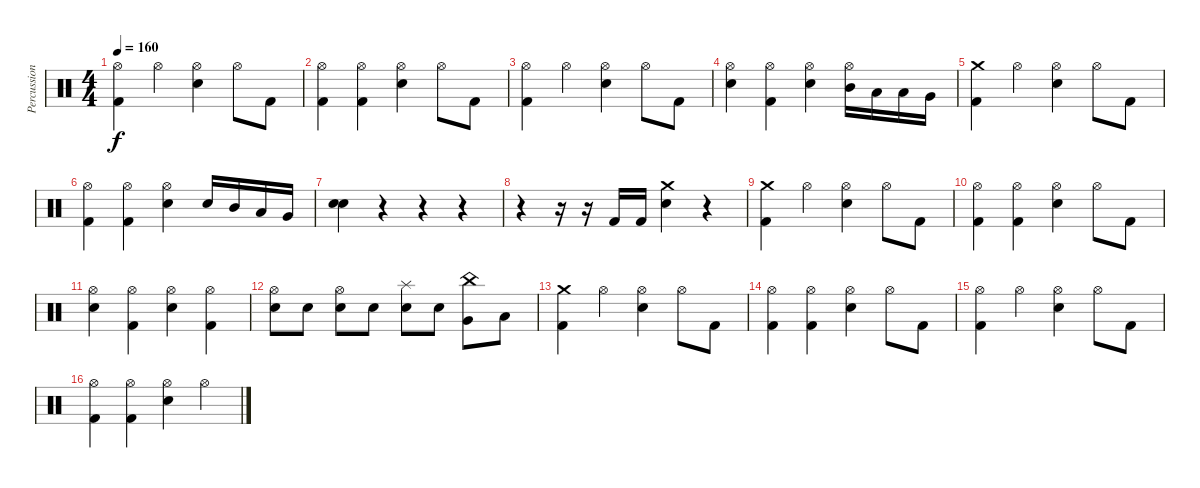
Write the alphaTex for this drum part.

\track ("Percussioni" "Percussion") {instrument percussion}
\staff {score}
\articulation defaults
\ts (4 4)
\tempo 160
\clef neutral
\ks c
("Hi-Hat (open)" "Kick (hit) 2").4{dy f} "Hi-Hat (open)".4 ("Hi-Hat (open)" "Snare (hit) 2").4 "Hi-Hat (open)".8 "Kick (hit) 2".8 |
("Hi-Hat (open)" "Kick (hit) 2").4 ("Hi-Hat (open)" "Kick (hit) 2").4 ("Hi-Hat (open)" "Snare (hit) 2").4 "Hi-Hat (open)".8 "Kick (hit) 2".8 |
("Hi-Hat (open)" "Kick (hit) 2").4 "Hi-Hat (open)".4 ("Hi-Hat (open)" "Snare (hit) 2").4 "Hi-Hat (open)".8 "Kick (hit) 2".8 |
("Hi-Hat (open)" "Snare (hit) 2").4 ("Hi-Hat (open)" "Kick (hit) 2").4 ("Hi-Hat (open)" "Snare (hit) 2").4 ("Hi-Hat (open)" "Mid Tom (hit)").16 "Low Tom (hit)".16 "Low Tom (hit)".16 "Very Low Tom (hit)".16 |
("Crash medium (hit)" "Kick (hit) 2").4 "Hi-Hat (open)".4 ("Hi-Hat (open)" "Snare (hit) 2").4 "Hi-Hat (open)".8 "Kick (hit) 2".8 |
("Hi-Hat (open)" "Kick (hit) 2").4 ("Hi-Hat (open)" "Kick (hit) 2").4 ("Hi-Hat (open)" "Snare (hit) 2").4 "Snare (hit) 2".16 "Mid Tom (hit)".16 "Low Tom (hit)".16 "Very Low Tom (hit)".16 |
("Electric Snare (hit)" "Snare (hit) 2").4 r.4 r.4 r.4 |
r.4 r.16 r.16 "Kick (hit) 2".16 "Kick (hit) 2".16 ("Crash medium (hit)" "Snare (hit) 2").4 r.4 |
("Crash medium (hit)" "Kick (hit) 2").4 "Hi-Hat (open)".4 ("Hi-Hat (open)" "Snare (hit) 2").4 "Hi-Hat (open)".8 "Kick (hit) 2".8 |
("Hi-Hat (open)" "Kick (hit) 2").4 ("Hi-Hat (open)" "Kick (hit) 2").4 ("Hi-Hat (open)" "Snare (hit) 2").4 "Hi-Hat (open)".8 "Kick (hit) 2".8 |
("Hi-Hat (open)" "Snare (hit) 2").4 ("Hi-Hat (open)" "Kick (hit) 2").4 ("Hi-Hat (open)" "Snare (hit) 2").4 ("Hi-Hat (open)" "Kick (hit) 2").4 |
("Hi-Hat (open)" "Snare (hit) 2").8 "Snare (hit) 2".8 ("Hi-Hat (open)" "Snare (hit) 2").8 "Snare (hit) 2".8 ("Splash (hit)" "Snare (hit) 2").8 "Snare (hit) 2".8 ("China (hit)" "Very Low Tom (hit)").8 "Low Floor Tom (hit)".8 |
("Crash medium (hit)" "Kick (hit) 2").4 "Hi-Hat (open)".4 ("Hi-Hat (open)" "Snare (hit) 2").4 "Hi-Hat (open)".8 "Kick (hit) 2".8 |
("Hi-Hat (open)" "Kick (hit) 2").4 ("Hi-Hat (open)" "Kick (hit) 2").4 ("Hi-Hat (open)" "Snare (hit) 2").4 "Hi-Hat (open)".8 "Kick (hit) 2".8 |
("Hi-Hat (open)" "Kick (hit) 2").4 "Hi-Hat (open)".4 ("Hi-Hat (open)" "Snare (hit) 2").4 "Hi-Hat (open)".8 "Kick (hit) 2".8 |
("Hi-Hat (open)" "Kick (hit) 2").4 ("Hi-Hat (open)" "Kick (hit) 2").4 ("Hi-Hat (open)" "Snare (hit) 2").4 "Hi-Hat (open)".4
